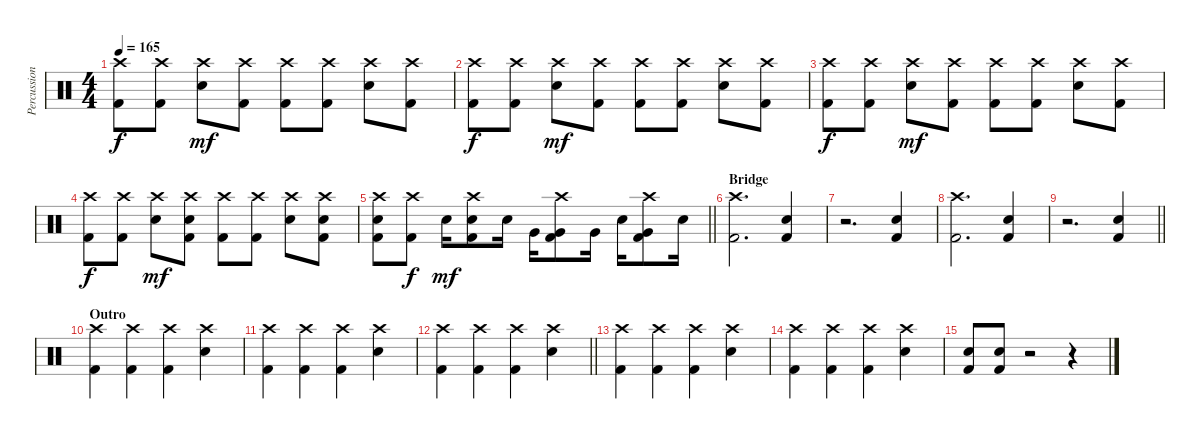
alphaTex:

\track ("Percussion" "Percussion") {instrument percussion}
\staff {score}
\articulation defaults
\ts (4 4)
\tempo 165
\clef neutral
\ks c
("Crash high (hit)" "Kick (hit) 2").8{dy f} ("Crash high (hit)" "Kick (hit) 2").8 ("Crash high (hit)" "Snare (hit) 2").8{dy mf} ("Crash high (hit)" "Kick (hit) 2").8 ("Crash high (hit)" "Kick (hit) 2").8 ("Crash high (hit)" "Kick (hit) 2").8 ("Crash high (hit)" "Snare (hit) 2").8 ("Crash high (hit)" "Kick (hit) 2").8 |
("Crash high (hit)" "Kick (hit) 2").8{dy f} ("Crash high (hit)" "Kick (hit) 2").8 ("Crash high (hit)" "Snare (hit) 2").8{dy mf} ("Crash high (hit)" "Kick (hit) 2").8 ("Crash high (hit)" "Kick (hit) 2").8 ("Crash high (hit)" "Kick (hit) 2").8 ("Crash high (hit)" "Snare (hit) 2").8 ("Crash high (hit)" "Kick (hit) 2").8 |
("Crash high (hit)" "Kick (hit) 2").8{dy f} ("Crash high (hit)" "Kick (hit) 2").8 ("Crash high (hit)" "Snare (hit) 2").8{dy mf} ("Crash high (hit)" "Kick (hit) 2").8 ("Crash high (hit)" "Kick (hit) 2").8 ("Crash high (hit)" "Kick (hit) 2").8 ("Crash high (hit)" "Snare (hit) 2").8 ("Crash high (hit)" "Kick (hit) 2").8 |
("Crash high (hit)" "Kick (hit) 2").8{dy f} ("Crash high (hit)" "Kick (hit) 2").8 ("Crash high (hit)" "Snare (hit) 2").8{dy mf} ("Crash high (hit)" "Snare (hit) 2" "Kick (hit) 2").8 ("Crash high (hit)" "Kick (hit) 2").8 ("Crash high (hit)" "Kick (hit) 2").8 ("Crash high (hit)" "Snare (hit) 2").8 ("Crash high (hit)" "Snare (hit) 2" "Kick (hit) 2").8 |
\barLineRight lightlight
("Crash high (hit)" "Snare (hit) 2" "Kick (hit) 2").8 ("Crash high (hit)" "Kick (hit) 2").8{dy f} "Snare (hit) 2".16{dy mf} ("Crash high (hit)" "Snare (hit) 2" "Kick (hit) 2").8 "Snare (hit) 2".16 "Very Low Tom (hit)".16 ("Crash high (hit)" "Very Low Tom (hit)" "Kick (hit) 2").8 "Very Low Tom (hit)".16 "Snare (hit) 2".16 ("Crash high (hit)" "Very Low Tom (hit)" "Kick (hit) 2").8 "Snare (hit) 2".16 |
\section ("" "Bridge")
("Crash high (hit)" "Kick (hit) 2").2{d} ("Snare (hit) 2" "Kick (hit) 2").4 |
r.2{d} ("Snare (hit) 2" "Kick (hit) 2").4 |
("Crash high (hit)" "Kick (hit) 2").2{d} ("Snare (hit) 2" "Kick (hit) 2").4 |
\barLineRight lightlight
r.2{d} ("Snare (hit) 2" "Kick (hit) 2").4 |
\section ("" "Outro")
("Crash high (hit)" "Kick (hit) 2").4 ("Crash high (hit)" "Kick (hit) 2").4 ("Crash high (hit)" "Kick (hit) 2").4 ("Crash high (hit)" "Snare (hit) 2").4 |
("Crash high (hit)" "Kick (hit) 2").4 ("Crash high (hit)" "Kick (hit) 2").4 ("Crash high (hit)" "Kick (hit) 2").4 ("Crash high (hit)" "Snare (hit) 2").4 |
\barLineRight lightlight
("Crash high (hit)" "Kick (hit) 2").4 ("Crash high (hit)" "Kick (hit) 2").4 ("Crash high (hit)" "Kick (hit) 2").4 ("Crash high (hit)" "Snare (hit) 2").4 |
("Crash high (hit)" "Kick (hit) 2").4 ("Crash high (hit)" "Kick (hit) 2").4 ("Crash high (hit)" "Kick (hit) 2").4 ("Crash high (hit)" "Snare (hit) 2").4 |
("Crash high (hit)" "Kick (hit) 2").4 ("Crash high (hit)" "Kick (hit) 2").4 ("Crash high (hit)" "Kick (hit) 2").4 ("Crash high (hit)" "Snare (hit) 2").4 |
("Kick (hit) 2" "Snare (hit) 2").8 ("Kick (hit) 2" "Snare (hit) 2").8 r.2 r.4
